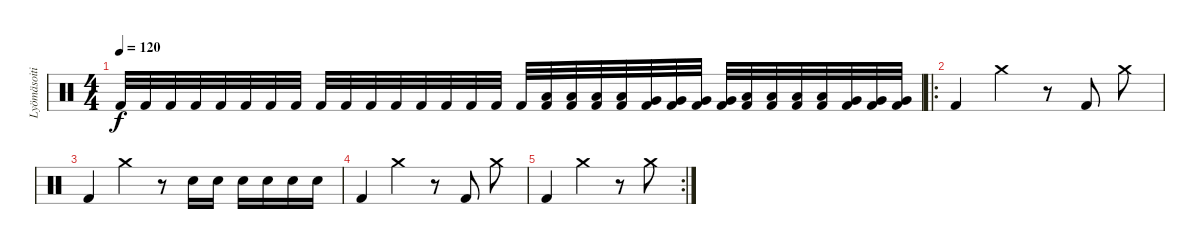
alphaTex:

\track ("Lyömäsoitin" "Lyömäsoiti") {instrument percussion}
\staff {score}
\articulation defaults
\ts (4 4)
\tempo 120
\clef neutral
\ks c "Kick (hit) 2".32{dy f} "Kick (hit) 2".32 "Kick (hit) 2".32 "Kick (hit) 2".32 "Kick (hit) 2".32 "Kick (hit) 2".32 "Kick (hit) 2".32 "Kick (hit) 2".32 "Kick (hit) 2".32 "Kick (hit) 2".32 "Kick (hit) 2".32 "Kick (hit) 2".32 "Kick (hit) 2".32 "Kick (hit) 2".32 "Kick (hit) 2".32 "Kick (hit) 2".32 "Kick (hit) 2".32
("Low Floor Tom (hit)" "Kick (hit) 2").32 ("Low Floor Tom (hit)" "Kick (hit) 2").32 ("Low Floor Tom (hit)" "Kick (hit) 2").32 ("Low Floor Tom (hit)" "Kick (hit) 2").32 ("Very Low Tom (hit)" "Kick (hit) 2").32 ("Very Low Tom (hit)" "Kick (hit) 2").32 ("Very Low Tom (hit)" "Kick (hit) 2").32 ("Very Low Tom (hit)" "Kick (hit) 2").32 ("Low Tom (hit)" "Kick (hit) 2").32 ("Low Tom (hit)" "Kick (hit) 2").32 ("Low Tom (hit)" "Kick (hit) 2").32 ("Low Tom (hit)" "Kick (hit) 2").32 ("Very Low Tom (hit)" "Kick (hit) 2").32 ("Very Low Tom (hit)" "Kick (hit) 2").32 ("Very Low Tom (hit)" "Kick (hit) 2").32 |
\ro "Kick (hit) 2".4 "Crash medium (hit)".4
r.8 "Kick (hit) 2".8 "Crash medium (hit)".8 |
"Kick (hit) 2".4 "Crash medium (hit)".4 r.8 "Electric Snare (hit)".16 "Electric Snare (hit)".16 "Electric Snare (hit)".16 "Electric Snare (hit)".16 "Electric Snare (hit)".16 "Electric Snare (hit)".16 |
"Kick (hit) 2".4 "Crash medium (hit)".4 r.8 "Kick (hit) 2".8 "Crash medium (hit)".8 |
\rc 2 "Kick (hit) 2".4 "Crash medium (hit)".4
r.8 "Crash medium (hit)".8
